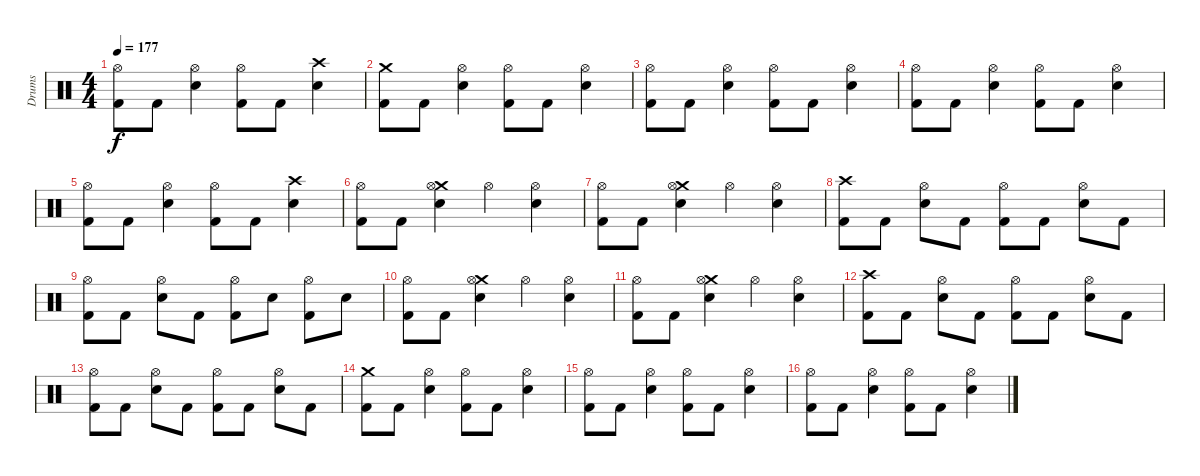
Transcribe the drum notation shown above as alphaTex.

\track ("Drums" "Drums") {solo instrument percussion}
\staff {score}
\articulation defaults
\ts (4 4)
\tempo 177
\clef neutral
\ks c
("Hi-Hat (open)" "Kick (hit) 2").8{dy f} "Kick (hit) 2".8 ("Hi-Hat (open)" "Snare (hit) 2").4 ("Hi-Hat (open)" "Kick (hit) 2").8 "Kick (hit) 2".8 ("Crash high (hit)" "Snare (hit) 2").4 |
("Crash medium (hit)" "Kick (hit) 2").8 "Kick (hit) 2".8 ("Hi-Hat (open)" "Snare (hit) 2").4 ("Hi-Hat (open)" "Kick (hit) 2").8 "Kick (hit) 2".8 ("Hi-Hat (open)" "Snare (hit) 2").4 |
("Hi-Hat (open)" "Kick (hit) 2").8 "Kick (hit) 2".8 ("Hi-Hat (open)" "Snare (hit) 2").4 ("Hi-Hat (open)" "Kick (hit) 2").8 "Kick (hit) 2".8 ("Hi-Hat (open)" "Snare (hit) 2").4 |
("Hi-Hat (open)" "Kick (hit) 2").8 "Kick (hit) 2".8 ("Hi-Hat (open)" "Snare (hit) 2").4 ("Hi-Hat (open)" "Kick (hit) 2").8 "Kick (hit) 2".8 ("Hi-Hat (open)" "Snare (hit) 2").4 |
("Hi-Hat (open)" "Kick (hit) 2").8 "Kick (hit) 2".8 ("Hi-Hat (open)" "Snare (hit) 2").4 ("Hi-Hat (open)" "Kick (hit) 2").8 "Kick (hit) 2".8 ("Crash high (hit)" "Snare (hit) 2").4 |
("Hi-Hat (open)" "Kick (hit) 2").8 "Kick (hit) 2".8 ("Crash medium (hit)" "Hi-Hat (open)" "Snare (hit) 2").4 "Hi-Hat (open)".4 ("Hi-Hat (open)" "Snare (hit) 2").4 |
("Hi-Hat (open)" "Kick (hit) 2").8 "Kick (hit) 2".8 ("Crash medium (hit)" "Hi-Hat (open)" "Snare (hit) 2").4 "Hi-Hat (open)".4 ("Hi-Hat (open)" "Snare (hit) 2").4 |
("Crash high (hit)" "Kick (hit) 2").8 "Kick (hit) 2".8 ("Hi-Hat (open)" "Snare (hit) 2").8 "Kick (hit) 2".8 ("Hi-Hat (open)" "Kick (hit) 2").8 "Kick (hit) 2".8 ("Hi-Hat (open)" "Snare (hit) 2").8 "Kick (hit) 2".8 |
("Hi-Hat (open)" "Kick (hit) 2").8 "Kick (hit) 2".8 ("Hi-Hat (open)" "Snare (hit) 2").8 "Kick (hit) 2".8 ("Hi-Hat (open)" "Kick (hit) 2").8 "Snare (hit) 2".8 ("Hi-Hat (open)" "Kick (hit) 2").8 "Snare (hit) 2".8 |
("Hi-Hat (open)" "Kick (hit) 2").8 "Kick (hit) 2".8 ("Crash medium (hit)" "Hi-Hat (open)" "Snare (hit) 2").4 "Hi-Hat (open)".4 ("Hi-Hat (open)" "Snare (hit) 2").4 |
("Hi-Hat (open)" "Kick (hit) 2").8 "Kick (hit) 2".8 ("Crash medium (hit)" "Hi-Hat (open)" "Snare (hit) 2").4 "Hi-Hat (open)".4 ("Hi-Hat (open)" "Snare (hit) 2").4 |
("Crash high (hit)" "Kick (hit) 2").8 "Kick (hit) 2".8 ("Hi-Hat (open)" "Snare (hit) 2").8 "Kick (hit) 2".8 ("Hi-Hat (open)" "Kick (hit) 2").8 "Kick (hit) 2".8 ("Hi-Hat (open)" "Snare (hit) 2").8 "Kick (hit) 2".8 |
("Hi-Hat (open)" "Kick (hit) 2").8 "Kick (hit) 2".8 ("Hi-Hat (open)" "Snare (hit) 2").8 "Kick (hit) 2".8 ("Hi-Hat (open)" "Kick (hit) 2").8 "Kick (hit) 2".8 ("Hi-Hat (open)" "Snare (hit) 2").8 "Kick (hit) 2".8 |
("Crash medium (hit)" "Kick (hit) 2").8 "Kick (hit) 2".8 ("Hi-Hat (open)" "Snare (hit) 2").4 ("Hi-Hat (open)" "Kick (hit) 2").8 "Kick (hit) 2".8 ("Hi-Hat (open)" "Snare (hit) 2").4 |
("Hi-Hat (open)" "Kick (hit) 2").8 "Kick (hit) 2".8 ("Hi-Hat (open)" "Snare (hit) 2").4 ("Hi-Hat (open)" "Kick (hit) 2").8 "Kick (hit) 2".8 ("Hi-Hat (open)" "Snare (hit) 2").4 |
("Hi-Hat (open)" "Kick (hit) 2").8 "Kick (hit) 2".8 ("Hi-Hat (open)" "Snare (hit) 2").4 ("Hi-Hat (open)" "Kick (hit) 2").8 "Kick (hit) 2".8 ("Hi-Hat (open)" "Snare (hit) 2").4
